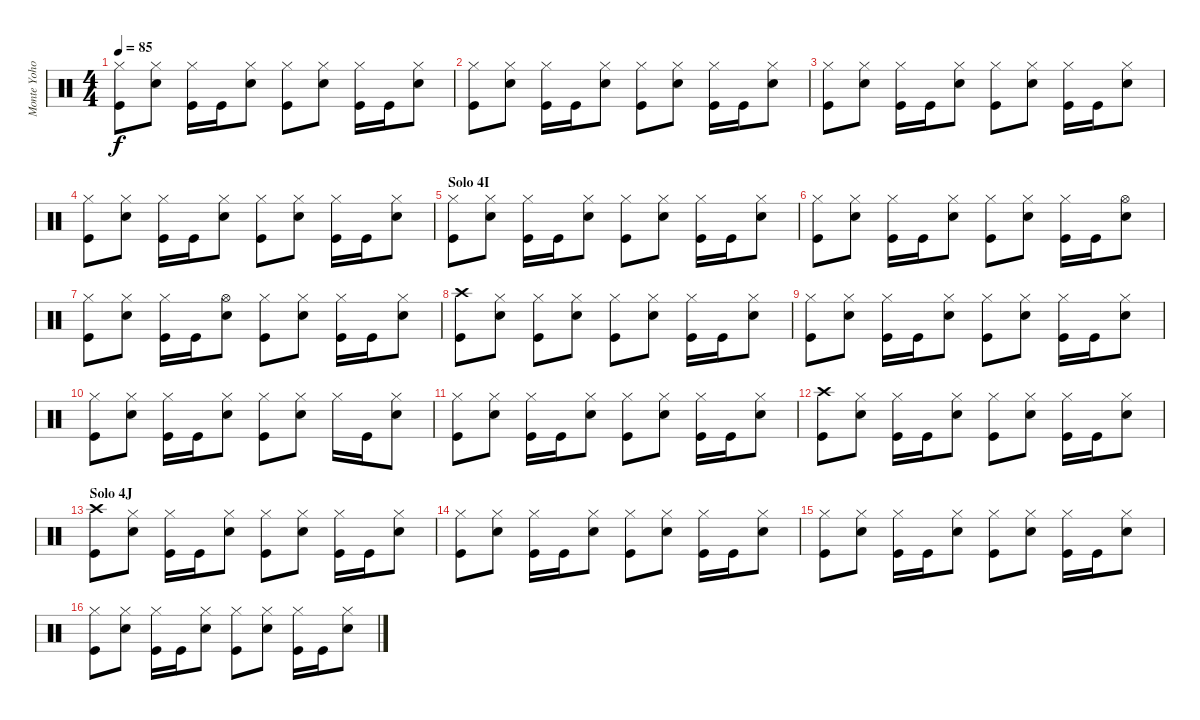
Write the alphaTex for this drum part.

\track ("Monte Yoho - Drums" "Monte Yoho") {instrument percussion}
\staff {score}
\articulation defaults
\ts (4 4)
\tempo 85
\clef neutral
\ks c
("Hi-Hat (closed)" "Kick (hit)").8{dy f} ("Hi-Hat (closed)" "Snare (hit) 2").8 ("Hi-Hat (closed)" "Kick (hit)").16 "Kick (hit)".16 ("Hi-Hat (closed)" "Snare (hit) 2").8 ("Hi-Hat (closed)" "Kick (hit)").8 ("Hi-Hat (closed)" "Snare (hit) 2").8 ("Hi-Hat (closed)" "Kick (hit)").16 "Kick (hit)".16 ("Hi-Hat (closed)" "Snare (hit) 2").8 |
("Hi-Hat (closed)" "Kick (hit)").8 ("Hi-Hat (closed)" "Snare (hit) 2").8 ("Hi-Hat (closed)" "Kick (hit)").16 "Kick (hit)".16 ("Hi-Hat (closed)" "Snare (hit) 2").8 ("Hi-Hat (closed)" "Kick (hit)").8 ("Hi-Hat (closed)" "Snare (hit) 2").8 ("Hi-Hat (closed)" "Kick (hit)").16 "Kick (hit)".16 ("Hi-Hat (closed)" "Snare (hit) 2").8 |
("Hi-Hat (closed)" "Kick (hit)").8 ("Hi-Hat (closed)" "Snare (hit) 2").8 ("Hi-Hat (closed)" "Kick (hit)").16 "Kick (hit)".16 ("Hi-Hat (closed)" "Snare (hit) 2").8 ("Hi-Hat (closed)" "Kick (hit)").8 ("Hi-Hat (closed)" "Snare (hit) 2").8 ("Hi-Hat (closed)" "Kick (hit)").16 "Kick (hit)".16 ("Hi-Hat (closed)" "Snare (hit) 2").8 |
("Hi-Hat (closed)" "Kick (hit)").8 ("Hi-Hat (closed)" "Snare (hit) 2").8 ("Hi-Hat (closed)" "Kick (hit)").16 "Kick (hit)".16 ("Hi-Hat (closed)" "Snare (hit) 2").8 ("Hi-Hat (closed)" "Kick (hit)").8 ("Hi-Hat (closed)" "Snare (hit) 2").8 ("Hi-Hat (closed)" "Kick (hit)").16 "Kick (hit)".16 ("Hi-Hat (closed)" "Snare (hit) 2").8 |
\section ("" "Solo 4I")
("Hi-Hat (closed)" "Kick (hit)").8 ("Hi-Hat (closed)" "Snare (hit) 2").8 ("Hi-Hat (closed)" "Kick (hit)").16 "Kick (hit)".16 ("Hi-Hat (closed)" "Snare (hit) 2").8 ("Hi-Hat (closed)" "Kick (hit)").8 ("Hi-Hat (closed)" "Snare (hit) 2").8 ("Hi-Hat (closed)" "Kick (hit)").16 "Kick (hit)".16 ("Hi-Hat (closed)" "Snare (hit) 2").8 |
("Hi-Hat (closed)" "Kick (hit)").8 ("Hi-Hat (closed)" "Snare (hit) 2").8 ("Hi-Hat (closed)" "Kick (hit)").16 "Kick (hit)".16 ("Hi-Hat (closed)" "Snare (hit) 2").8 ("Hi-Hat (closed)" "Kick (hit)").8 ("Hi-Hat (closed)" "Snare (hit) 2").8 ("Hi-Hat (closed)" "Kick (hit)").16 "Kick (hit)".16 ("Hi-Hat (open)" "Snare (hit) 2").8 |
("Hi-Hat (closed)" "Kick (hit)").8 ("Hi-Hat (closed)" "Snare (hit) 2").8 ("Hi-Hat (closed)" "Kick (hit)").16 "Kick (hit)".16 ("Hi-Hat (open)" "Snare (hit) 2").8 ("Hi-Hat (closed)" "Kick (hit)").8 ("Hi-Hat (closed)" "Snare (hit) 2").8 ("Hi-Hat (closed)" "Kick (hit)").16 "Kick (hit)".16 ("Hi-Hat (closed)" "Snare (hit) 2").8 |
("Crash high (hit)" "Kick (hit)").8 ("Hi-Hat (closed)" "Snare (hit) 2").8 ("Hi-Hat (closed)" "Kick (hit)").8 ("Hi-Hat (closed)" "Snare (hit) 2").8 ("Hi-Hat (closed)" "Kick (hit)").8 ("Hi-Hat (closed)" "Snare (hit) 2").8 ("Hi-Hat (closed)" "Kick (hit)").16 "Kick (hit)".16 ("Hi-Hat (closed)" "Snare (hit) 2").8 |
("Hi-Hat (closed)" "Kick (hit)").8 ("Hi-Hat (closed)" "Snare (hit) 2").8 ("Hi-Hat (closed)" "Kick (hit)").16 "Kick (hit)".16 ("Hi-Hat (closed)" "Snare (hit) 2").8 ("Hi-Hat (closed)" "Kick (hit)").8 ("Hi-Hat (closed)" "Snare (hit) 2").8 ("Hi-Hat (closed)" "Kick (hit)").16 "Kick (hit)".16 ("Hi-Hat (closed)" "Snare (hit) 2").8 |
("Hi-Hat (closed)" "Kick (hit)").8 ("Hi-Hat (closed)" "Snare (hit) 2").8 ("Hi-Hat (closed)" "Kick (hit)").16 "Kick (hit)".16 ("Hi-Hat (closed)" "Snare (hit) 2").8 ("Hi-Hat (closed)" "Kick (hit)").8 ("Hi-Hat (closed)" "Snare (hit) 2").8 "Hi-Hat (closed)".16 "Kick (hit)".16 ("Hi-Hat (closed)" "Snare (hit) 2").8 |
("Hi-Hat (closed)" "Kick (hit)").8 ("Hi-Hat (closed)" "Snare (hit) 2").8 ("Hi-Hat (closed)" "Kick (hit)").16 "Kick (hit)".16 ("Hi-Hat (closed)" "Snare (hit) 2").8 ("Hi-Hat (closed)" "Kick (hit)").8 ("Hi-Hat (closed)" "Snare (hit) 2").8 ("Hi-Hat (closed)" "Kick (hit)").16 "Kick (hit)".16 ("Hi-Hat (closed)" "Snare (hit) 2").8 |
("Crash high (hit)" "Kick (hit)").8 ("Hi-Hat (closed)" "Snare (hit) 2").8 ("Hi-Hat (closed)" "Kick (hit)").16 "Kick (hit)".16 ("Hi-Hat (closed)" "Snare (hit) 2").8 ("Hi-Hat (closed)" "Kick (hit)").8 ("Hi-Hat (closed)" "Snare (hit) 2").8 ("Hi-Hat (closed)" "Kick (hit)").16 "Kick (hit)".16 ("Hi-Hat (closed)" "Snare (hit) 2").8 |
\section ("" "Solo 4J")
("Crash high (hit)" "Kick (hit)").8 ("Hi-Hat (closed)" "Snare (hit) 2").8 ("Hi-Hat (closed)" "Kick (hit)").16 "Kick (hit)".16 ("Hi-Hat (closed)" "Snare (hit) 2").8 ("Hi-Hat (closed)" "Kick (hit)").8 ("Hi-Hat (closed)" "Snare (hit) 2").8 ("Hi-Hat (closed)" "Kick (hit)").16 "Kick (hit)".16 ("Hi-Hat (closed)" "Snare (hit) 2").8 |
("Hi-Hat (closed)" "Kick (hit)").8 ("Hi-Hat (closed)" "Snare (hit) 2").8 ("Hi-Hat (closed)" "Kick (hit)").16 "Kick (hit)".16 ("Hi-Hat (closed)" "Snare (hit) 2").8 ("Hi-Hat (closed)" "Kick (hit)").8 ("Hi-Hat (closed)" "Snare (hit) 2").8 ("Hi-Hat (closed)" "Kick (hit)").16 "Kick (hit)".16 ("Hi-Hat (closed)" "Snare (hit) 2").8 |
("Hi-Hat (closed)" "Kick (hit)").8 ("Hi-Hat (closed)" "Snare (hit) 2").8 ("Hi-Hat (closed)" "Kick (hit)").16 "Kick (hit)".16 ("Hi-Hat (closed)" "Snare (hit) 2").8 ("Hi-Hat (closed)" "Kick (hit)").8 ("Hi-Hat (closed)" "Snare (hit) 2").8 ("Hi-Hat (closed)" "Kick (hit)").16 "Kick (hit)".16 ("Hi-Hat (closed)" "Snare (hit) 2").8 |
("Hi-Hat (closed)" "Kick (hit)").8 ("Hi-Hat (closed)" "Snare (hit) 2").8 ("Hi-Hat (closed)" "Kick (hit)").16 "Kick (hit)".16 ("Hi-Hat (closed)" "Snare (hit) 2").8 ("Hi-Hat (closed)" "Kick (hit)").8 ("Hi-Hat (closed)" "Snare (hit) 2").8 ("Hi-Hat (closed)" "Kick (hit)").16 "Kick (hit)".16 ("Hi-Hat (closed)" "Snare (hit) 2").8
